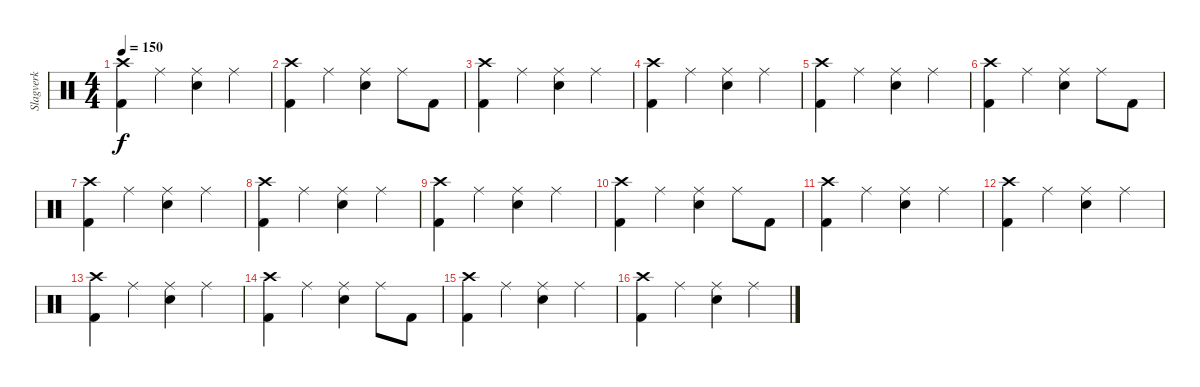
\track ("Slagverk" "Slagverk") {instrument percussion}
\staff {score}
\articulation defaults
\ts (4 4)
\tempo 150
\clef neutral
\ks c
("Crash high (hit)" "Kick (hit) 2").4{dy f} "Ride (middle)".4 ("Ride (middle)" "Electric Snare (hit)").4 "Ride (middle)".4 |
("Crash high (hit)" "Kick (hit) 2").4 "Ride (middle)".4 ("Ride (middle)" "Electric Snare (hit)").4 "Ride (middle)".8 "Kick (hit) 2".8 |
("Crash high (hit)" "Kick (hit) 2").4 "Ride (middle)".4 ("Ride (middle)" "Electric Snare (hit)").4 "Ride (middle)".4 |
("Crash high (hit)" "Kick (hit) 2").4 "Ride (middle)".4 ("Ride (middle)" "Electric Snare (hit)").4 "Ride (middle)".4 |
("Crash high (hit)" "Kick (hit) 2").4 "Ride (middle)".4 ("Ride (middle)" "Electric Snare (hit)").4 "Ride (middle)".4 |
("Crash high (hit)" "Kick (hit) 2").4 "Ride (middle)".4 ("Ride (middle)" "Electric Snare (hit)").4 "Ride (middle)".8 "Kick (hit) 2".8 |
("Crash high (hit)" "Kick (hit) 2").4 "Ride (middle)".4 ("Ride (middle)" "Electric Snare (hit)").4 "Ride (middle)".4 |
("Crash high (hit)" "Kick (hit) 2").4 "Ride (middle)".4 ("Ride (middle)" "Electric Snare (hit)").4 "Ride (middle)".4 |
("Crash high (hit)" "Kick (hit) 2").4 "Ride (middle)".4 ("Ride (middle)" "Electric Snare (hit)").4 "Ride (middle)".4 |
("Crash high (hit)" "Kick (hit) 2").4 "Ride (middle)".4 ("Ride (middle)" "Electric Snare (hit)").4 "Ride (middle)".8 "Kick (hit) 2".8 |
("Crash high (hit)" "Kick (hit) 2").4 "Ride (middle)".4 ("Ride (middle)" "Electric Snare (hit)").4 "Ride (middle)".4 |
("Crash high (hit)" "Kick (hit) 2").4 "Ride (middle)".4 ("Ride (middle)" "Electric Snare (hit)").4 "Ride (middle)".4 |
("Crash high (hit)" "Kick (hit) 2").4 "Ride (middle)".4 ("Ride (middle)" "Electric Snare (hit)").4 "Ride (middle)".4 |
("Crash high (hit)" "Kick (hit) 2").4 "Ride (middle)".4 ("Ride (middle)" "Electric Snare (hit)").4 "Ride (middle)".8 "Kick (hit) 2".8 |
("Crash high (hit)" "Kick (hit) 2").4 "Ride (middle)".4 ("Ride (middle)" "Electric Snare (hit)").4 "Ride (middle)".4 |
("Crash high (hit)" "Kick (hit) 2").4 "Ride (middle)".4 ("Ride (middle)" "Electric Snare (hit)").4 "Ride (middle)".4
